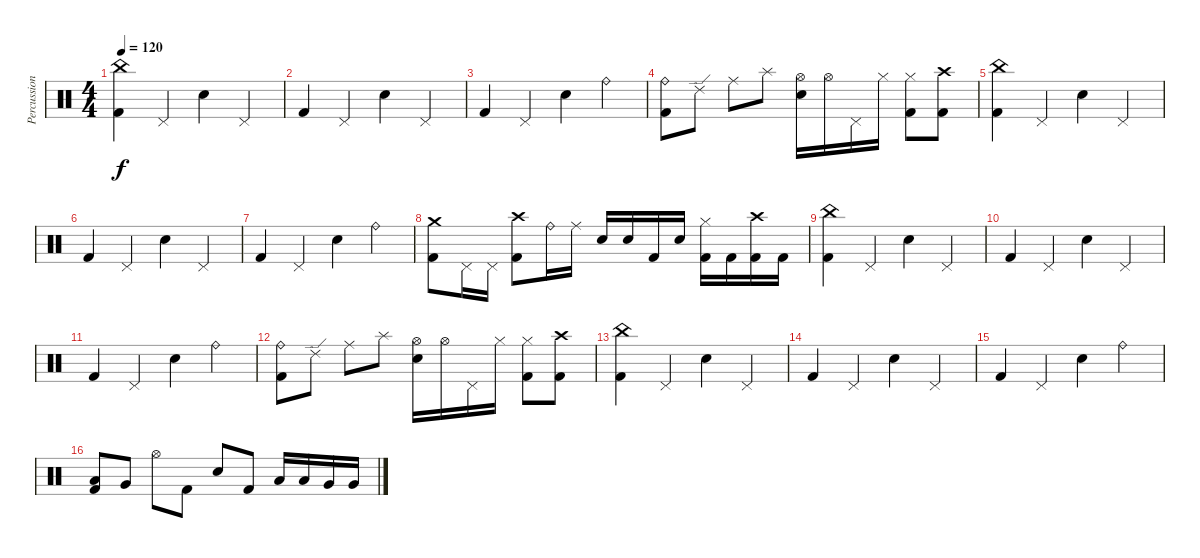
\track ("Percussion" "Percussion") {instrument percussion}
\staff {score}
\articulation defaults
\ts (4 4)
\tempo 120
\clef neutral
\ks c
("China (hit)" "Kick (hit) 2").4{dy f} "Pedal Hi-Hat (hit)".4 "Electric Snare (hit)".4 "Pedal Hi-Hat (hit)".4 |
"Kick (hit) 2".4 "Pedal Hi-Hat (hit)".4 "Electric Snare (hit)".4 "Pedal Hi-Hat (hit)".4 |
"Kick (hit) 2".4 "Pedal Hi-Hat (hit)".4 "Electric Snare (hit)".4 "Ride (bell)".4 |
("Ride (bell)" "Kick (hit) 2").8 "Ride (edge) 2".8 "Ride (middle)".8 "Splash (hit)".8 ("Hi-Hat (open)" "Electric Snare (hit)").16 "Hi-Hat (open)".16 "Pedal Hi-Hat (hit)".16 "Hi-Hat (closed)".16 ("Hi-Hat (closed)" "Kick (hit) 2").8 ("Crash high (hit)" "Kick (hit) 2").8 |
("China (hit)" "Kick (hit) 2").4 "Pedal Hi-Hat (hit)".4 "Electric Snare (hit)".4 "Pedal Hi-Hat (hit)".4 |
"Kick (hit) 2".4 "Pedal Hi-Hat (hit)".4 "Electric Snare (hit)".4 "Pedal Hi-Hat (hit)".4 |
"Kick (hit) 2".4 "Pedal Hi-Hat (hit)".4 "Electric Snare (hit)".4 "Ride (bell)".4 |
("Crash medium (hit)" "Kick (hit) 2").8 "Pedal Hi-Hat (hit)".16 "Pedal Hi-Hat (hit)".16 ("Crash high (hit)" "Kick (hit) 2").8 "Ride (bell)".16 "Ride (middle)".16 "Electric Snare (hit)".16 "Electric Snare (hit)".16 "Kick (hit) 2".16 "Electric Snare (hit)".16 ("Hi-Hat (closed)" "Kick (hit) 2").16 "Kick (hit) 2".16 ("Crash high (hit)" "Kick (hit) 2").16 "Kick (hit) 2".16 |
("China (hit)" "Kick (hit) 2").4 "Pedal Hi-Hat (hit)".4 "Electric Snare (hit)".4 "Pedal Hi-Hat (hit)".4 |
"Kick (hit) 2".4 "Pedal Hi-Hat (hit)".4 "Electric Snare (hit)".4 "Pedal Hi-Hat (hit)".4 |
"Kick (hit) 2".4 "Pedal Hi-Hat (hit)".4 "Electric Snare (hit)".4 "Ride (bell)".4 |
("Ride (bell)" "Kick (hit) 2").8 "Ride (edge) 2".8 "Ride (middle)".8 "Splash (hit)".8 ("Hi-Hat (open)" "Electric Snare (hit)").16 "Hi-Hat (open)".16 "Pedal Hi-Hat (hit)".16 "Hi-Hat (closed)".16 ("Hi-Hat (closed)" "Kick (hit) 2").8 ("Crash high (hit)" "Kick (hit) 2").8 |
("China (hit)" "Kick (hit) 2").4 "Pedal Hi-Hat (hit)".4 "Electric Snare (hit)".4 "Pedal Hi-Hat (hit)".4 |
"Kick (hit) 2".4 "Pedal Hi-Hat (hit)".4 "Electric Snare (hit)".4 "Pedal Hi-Hat (hit)".4 |
"Kick (hit) 2".4 "Pedal Hi-Hat (hit)".4 "Electric Snare (hit)".4 "Ride (bell)".4 |
("Low Tom (hit)" "Kick (hit) 2").8 "Very Low Tom (hit)".8 "Hi-Hat (open)".8 "Kick (hit) 2".8 "Electric Snare (hit)".8 "Kick (hit) 2".8 "Low Tom (hit)".16 "Low Tom (hit)".16 "Very Low Tom (hit)".16 "Very Low Tom (hit)".16
